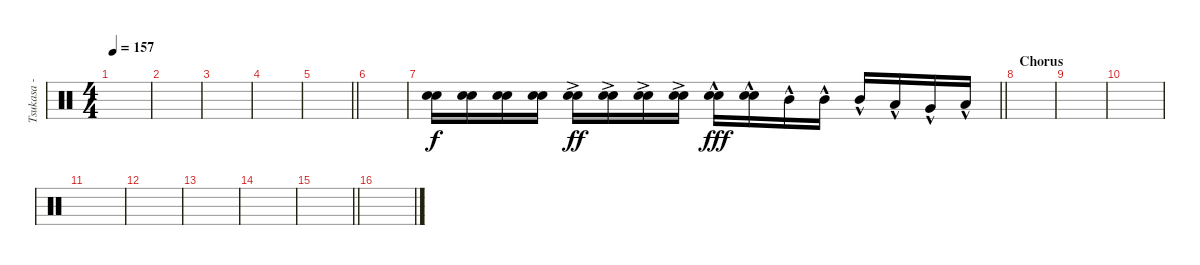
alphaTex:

\track ("Tsukasa - Drums [2]" "Tsukasa - ") {instrument percussion}
\staff {score}
\articulation defaults
\ts (4 4)
\tempo 157
\clef neutral
\ks c
|
|
|
|
\barLineRight lightlight
|
|
\barLineRight lightlight
("Electric Snare (hit)" "Snare (hit) 2").16{dy f} ("Electric Snare (hit)" "Snare (hit) 2").16 ("Electric Snare (hit)" "Snare (hit) 2").16 ("Electric Snare (hit)" "Snare (hit) 2").16 ("Electric Snare (hit)"{ac} "Snare (hit) 2"{ac}).16{dy ff} ("Electric Snare (hit)"{ac} "Snare (hit) 2"{ac}).16 ("Electric Snare (hit)"{ac} "Snare (hit) 2"{ac}).16 ("Electric Snare (hit)"{ac} "Snare (hit) 2"{ac}).16 ("Electric Snare (hit)"{hac} "Snare (hit) 2"{hac}).16{dy fff} ("Electric Snare (hit)"{hac} "Snare (hit) 2"{hac}).16 "Mid Tom (hit)"{hac}.16 "Mid Tom (hit)"{hac}.16 "Mid Tom (hit)"{hac}.16 "Low Tom (hit)"{hac}.16 "Very Low Tom (hit)"{hac}.16 "Low Floor Tom (hit)"{hac}.16 |
\section ("" "Chorus")
|
|
|
|
|
|
|
\barLineRight lightlight
|
\section ("" "")
